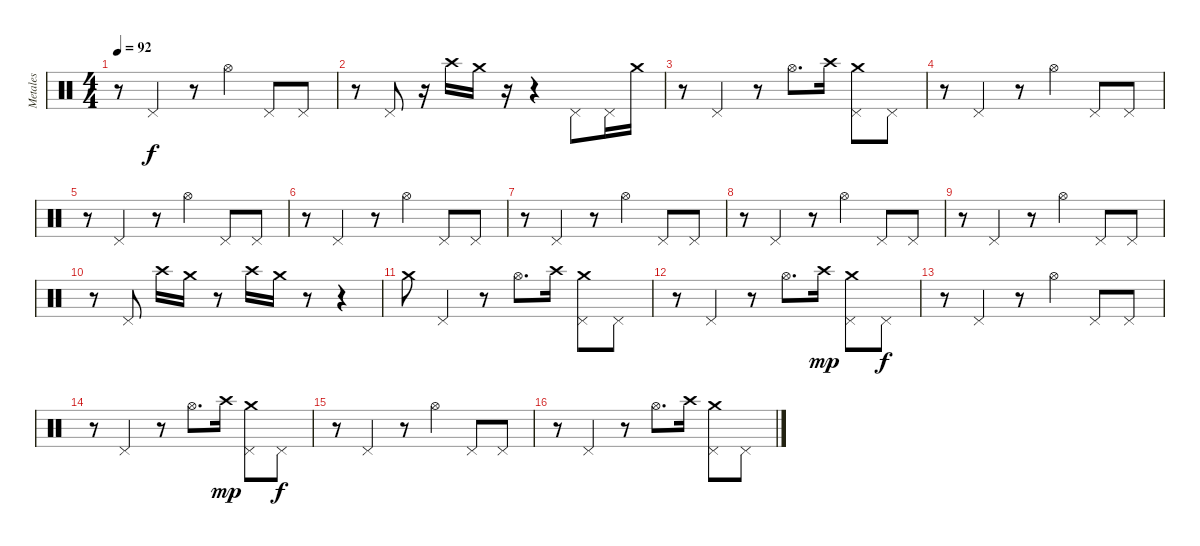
\track ("Metales" "Metales") {instrument percussion}
\staff {score}
\articulation defaults
\ts (4 4)
\tempo 92
\clef neutral
\ks c
r.8{dy f} "Pedal Hi-Hat (hit)".4 r.8 "Hi-Hat (open)".4 "Pedal Hi-Hat (hit)".8 "Pedal Hi-Hat (hit)".8 |
r.8 "Pedal Hi-Hat (hit)".8 r.16 "Crash high (hit)".16 "Crash medium (hit)".16 r.16 r.4 "Pedal Hi-Hat (hit)".8 "Pedal Hi-Hat (hit)".16 "Crash medium (hit)".16 |
r.8 "Pedal Hi-Hat (hit)".4 r.8 "Hi-Hat (open)".8{d} "Crash high (hit)".16 ("Crash medium (hit)" "Pedal Hi-Hat (hit)").8 "Pedal Hi-Hat (hit)".8 |
r.8 "Pedal Hi-Hat (hit)".4 r.8 "Hi-Hat (open)".4 "Pedal Hi-Hat (hit)".8 "Pedal Hi-Hat (hit)".8 |
r.8 "Pedal Hi-Hat (hit)".4 r.8 "Hi-Hat (open)".4 "Pedal Hi-Hat (hit)".8 "Pedal Hi-Hat (hit)".8 |
r.8 "Pedal Hi-Hat (hit)".4 r.8 "Hi-Hat (open)".4 "Pedal Hi-Hat (hit)".8 "Pedal Hi-Hat (hit)".8 |
r.8 "Pedal Hi-Hat (hit)".4 r.8 "Hi-Hat (open)".4 "Pedal Hi-Hat (hit)".8 "Pedal Hi-Hat (hit)".8 |
r.8 "Pedal Hi-Hat (hit)".4 r.8 "Hi-Hat (open)".4 "Pedal Hi-Hat (hit)".8 "Pedal Hi-Hat (hit)".8 |
r.8 "Pedal Hi-Hat (hit)".4 r.8 "Hi-Hat (open)".4 "Pedal Hi-Hat (hit)".8 "Pedal Hi-Hat (hit)".8 |
r.8 "Pedal Hi-Hat (hit)".8 "Crash high (hit)".16 "Crash medium (hit)".16 r.8 "Crash high (hit)".16 "Crash medium (hit)".16 r.8 r.4 |
"Crash medium (hit)".8 "Pedal Hi-Hat (hit)".4 r.8 "Hi-Hat (open)".8{d} "Crash high (hit)".16 ("Crash medium (hit)" "Pedal Hi-Hat (hit)").8 "Pedal Hi-Hat (hit)".8 |
r.8 "Pedal Hi-Hat (hit)".4 r.8 "Hi-Hat (open)".8{d} "Crash high (hit)".16{dy mp} ("Crash medium (hit)" "Pedal Hi-Hat (hit)").8 "Pedal Hi-Hat (hit)".8{dy f} |
r.8 "Pedal Hi-Hat (hit)".4 r.8 "Hi-Hat (open)".4 "Pedal Hi-Hat (hit)".8 "Pedal Hi-Hat (hit)".8 |
r.8 "Pedal Hi-Hat (hit)".4 r.8 "Hi-Hat (open)".8{d} "Crash high (hit)".16{dy mp} ("Crash medium (hit)" "Pedal Hi-Hat (hit)").8 "Pedal Hi-Hat (hit)".8{dy f} |
r.8 "Pedal Hi-Hat (hit)".4 r.8 "Hi-Hat (open)".4 "Pedal Hi-Hat (hit)".8 "Pedal Hi-Hat (hit)".8 |
r.8 "Pedal Hi-Hat (hit)".4 r.8 "Hi-Hat (open)".8{d} "Crash high (hit)".16 ("Crash medium (hit)" "Pedal Hi-Hat (hit)").8 "Pedal Hi-Hat (hit)".8
